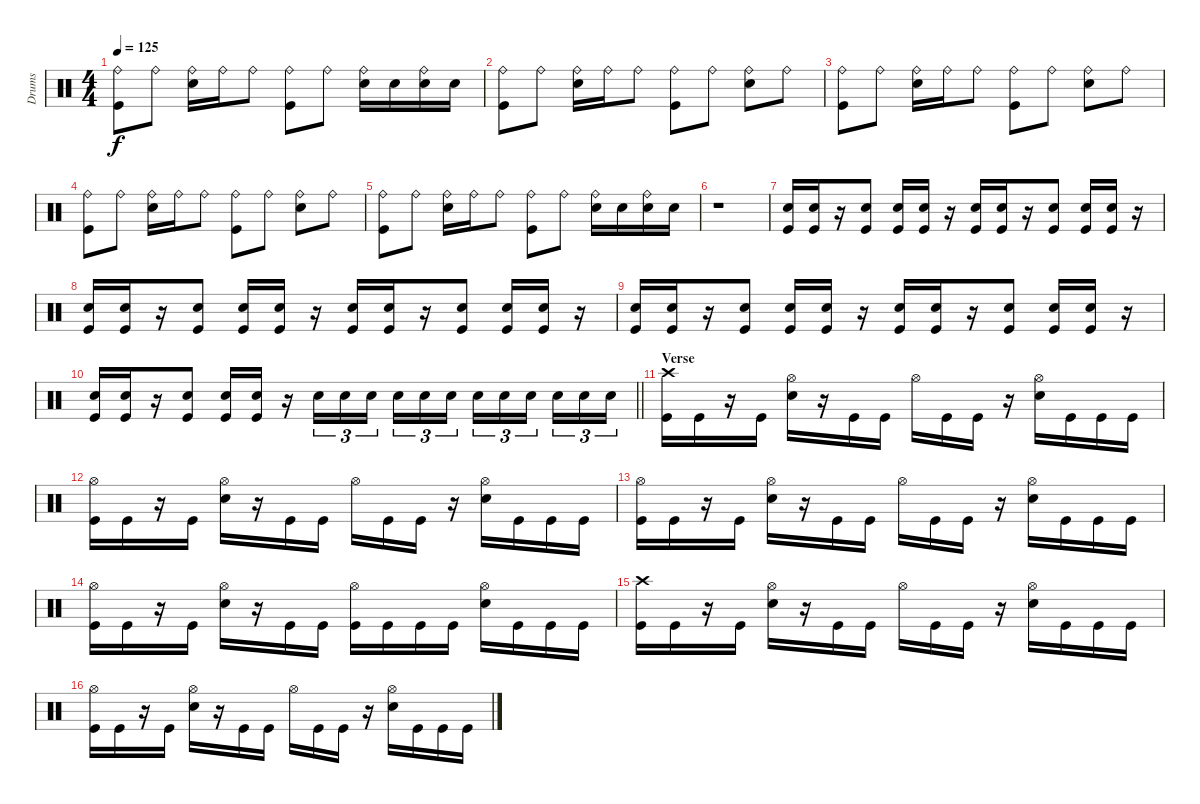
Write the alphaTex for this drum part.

\track ("Drums " "Drums ") {instrument percussion}
\staff {score}
\articulation defaults
\ts (4 4)
\tempo 125
\clef neutral
\ks c
("Ride (bell)" "Kick (hit)").8{dy f} "Ride (bell)".8 ("Ride (bell)" "Electric Snare (hit)").16 "Ride (bell)".16 "Ride (bell)".8 ("Ride (bell)" "Kick (hit)").8 "Ride (bell)".8 ("Ride (bell)" "Electric Snare (hit)").16 "Electric Snare (hit)".16 ("Ride (bell)" "Electric Snare (hit)").16 "Electric Snare (hit)".16 |
("Ride (bell)" "Kick (hit)").8 "Ride (bell)".8 ("Ride (bell)" "Electric Snare (hit)").16 "Ride (bell)".16 "Ride (bell)".8 ("Ride (bell)" "Kick (hit)").8 "Ride (bell)".8 ("Ride (bell)" "Electric Snare (hit)").8 "Ride (bell)".8 |
("Ride (bell)" "Kick (hit)").8 "Ride (bell)".8 ("Ride (bell)" "Electric Snare (hit)").16 "Ride (bell)".16 "Ride (bell)".8 ("Ride (bell)" "Kick (hit)").8 "Ride (bell)".8 ("Ride (bell)" "Electric Snare (hit)").8 "Ride (bell)".8 |
("Ride (bell)" "Kick (hit)").8 "Ride (bell)".8 ("Ride (bell)" "Electric Snare (hit)").16 "Ride (bell)".16 "Ride (bell)".8 ("Ride (bell)" "Kick (hit)").8 "Ride (bell)".8 ("Ride (bell)" "Electric Snare (hit)").8 "Ride (bell)".8 |
("Ride (bell)" "Kick (hit)").8 "Ride (bell)".8 ("Ride (bell)" "Electric Snare (hit)").16 "Ride (bell)".16 "Ride (bell)".8 ("Ride (bell)" "Kick (hit)").8 "Ride (bell)".8 ("Ride (bell)" "Electric Snare (hit)").16 "Electric Snare (hit)".16 ("Ride (bell)" "Electric Snare (hit)").16 "Electric Snare (hit)".16 |
r.1 |
("Electric Snare (hit)" "Kick (hit)").16 ("Electric Snare (hit)" "Kick (hit)").16 r.16 ("Electric Snare (hit)" "Kick (hit)").8 ("Electric Snare (hit)" "Kick (hit)").16 ("Electric Snare (hit)" "Kick (hit)").16 r.16 ("Electric Snare (hit)" "Kick (hit)").16 ("Electric Snare (hit)" "Kick (hit)").16 r.16 ("Electric Snare (hit)" "Kick (hit)").8 ("Electric Snare (hit)" "Kick (hit)").16 ("Electric Snare (hit)" "Kick (hit)").16 r.16 |
("Electric Snare (hit)" "Kick (hit)").16 ("Electric Snare (hit)" "Kick (hit)").16 r.16 ("Electric Snare (hit)" "Kick (hit)").8 ("Electric Snare (hit)" "Kick (hit)").16 ("Electric Snare (hit)" "Kick (hit)").16 r.16 ("Electric Snare (hit)" "Kick (hit)").16 ("Electric Snare (hit)" "Kick (hit)").16 r.16 ("Electric Snare (hit)" "Kick (hit)").8 ("Electric Snare (hit)" "Kick (hit)").16 ("Electric Snare (hit)" "Kick (hit)").16 r.16 |
("Electric Snare (hit)" "Kick (hit)").16 ("Electric Snare (hit)" "Kick (hit)").16 r.16 ("Electric Snare (hit)" "Kick (hit)").8 ("Electric Snare (hit)" "Kick (hit)").16 ("Electric Snare (hit)" "Kick (hit)").16 r.16 ("Electric Snare (hit)" "Kick (hit)").16 ("Electric Snare (hit)" "Kick (hit)").16 r.16 ("Electric Snare (hit)" "Kick (hit)").8 ("Electric Snare (hit)" "Kick (hit)").16 ("Electric Snare (hit)" "Kick (hit)").16 r.16 |
\barLineRight lightlight
("Electric Snare (hit)" "Kick (hit)").16 ("Electric Snare (hit)" "Kick (hit)").16 r.16 ("Electric Snare (hit)" "Kick (hit)").8 ("Electric Snare (hit)" "Kick (hit)").16 ("Electric Snare (hit)" "Kick (hit)").16 r.16 "Electric Snare (hit)".16{tu (3 2)} "Electric Snare (hit)".16{tu (3 2)} "Electric Snare (hit)".16{tu (3 2) beam splitsecondary} "Electric Snare (hit)".16{tu (3 2)} "Electric Snare (hit)".16{tu (3 2)} "Electric Snare (hit)".16{tu (3 2)} "Electric Snare (hit)".16{tu (3 2)} "Electric Snare (hit)".16{tu (3 2)} "Electric Snare (hit)".16{tu (3 2) beam splitsecondary} "Electric Snare (hit)".16{tu (3 2)} "Electric Snare (hit)".16{tu (3 2)} "Electric Snare (hit)".16{tu (3 2)} |
\section ("" "Verse")
("Crash high (hit)" "Kick (hit)").16 "Kick (hit)".16 r.16 "Kick (hit)".16 ("Hi-Hat (open)" "Electric Snare (hit)").16 r.16 "Kick (hit)".16 "Kick (hit)".16 "Hi-Hat (open)".16 "Kick (hit)".16 "Kick (hit)".16 r.16 ("Hi-Hat (open)" "Electric Snare (hit)").16 "Kick (hit)".16 "Kick (hit)".16 "Kick (hit)".16 |
("Hi-Hat (open)" "Kick (hit)").16 "Kick (hit)".16 r.16 "Kick (hit)".16 ("Hi-Hat (open)" "Electric Snare (hit)").16 r.16 "Kick (hit)".16 "Kick (hit)".16 "Hi-Hat (open)".16 "Kick (hit)".16 "Kick (hit)".16 r.16 ("Hi-Hat (open)" "Electric Snare (hit)").16 "Kick (hit)".16 "Kick (hit)".16 "Kick (hit)".16 |
("Hi-Hat (open)" "Kick (hit)").16 "Kick (hit)".16 r.16 "Kick (hit)".16 ("Hi-Hat (open)" "Electric Snare (hit)").16 r.16 "Kick (hit)".16 "Kick (hit)".16 "Hi-Hat (open)".16 "Kick (hit)".16 "Kick (hit)".16 r.16 ("Hi-Hat (open)" "Electric Snare (hit)").16 "Kick (hit)".16 "Kick (hit)".16 "Kick (hit)".16 |
("Hi-Hat (open)" "Kick (hit)").16 "Kick (hit)".16 r.16 "Kick (hit)".16 ("Hi-Hat (open)" "Electric Snare (hit)").16 r.16 "Kick (hit)".16 "Kick (hit)".16 ("Hi-Hat (open)" "Kick (hit)").16 "Kick (hit)".16 "Kick (hit)".16 "Kick (hit)".16 ("Hi-Hat (open)" "Electric Snare (hit)").16 "Kick (hit)".16 "Kick (hit)".16 "Kick (hit)".16 |
("Crash high (hit)" "Kick (hit)").16 "Kick (hit)".16 r.16 "Kick (hit)".16 ("Hi-Hat (open)" "Electric Snare (hit)").16 r.16 "Kick (hit)".16 "Kick (hit)".16 "Hi-Hat (open)".16 "Kick (hit)".16 "Kick (hit)".16 r.16 ("Hi-Hat (open)" "Electric Snare (hit)").16 "Kick (hit)".16 "Kick (hit)".16 "Kick (hit)".16 |
("Hi-Hat (open)" "Kick (hit)").16 "Kick (hit)".16 r.16 "Kick (hit)".16 ("Hi-Hat (open)" "Electric Snare (hit)").16 r.16 "Kick (hit)".16 "Kick (hit)".16 "Hi-Hat (open)".16 "Kick (hit)".16 "Kick (hit)".16 r.16 ("Hi-Hat (open)" "Electric Snare (hit)").16 "Kick (hit)".16 "Kick (hit)".16 "Kick (hit)".16
